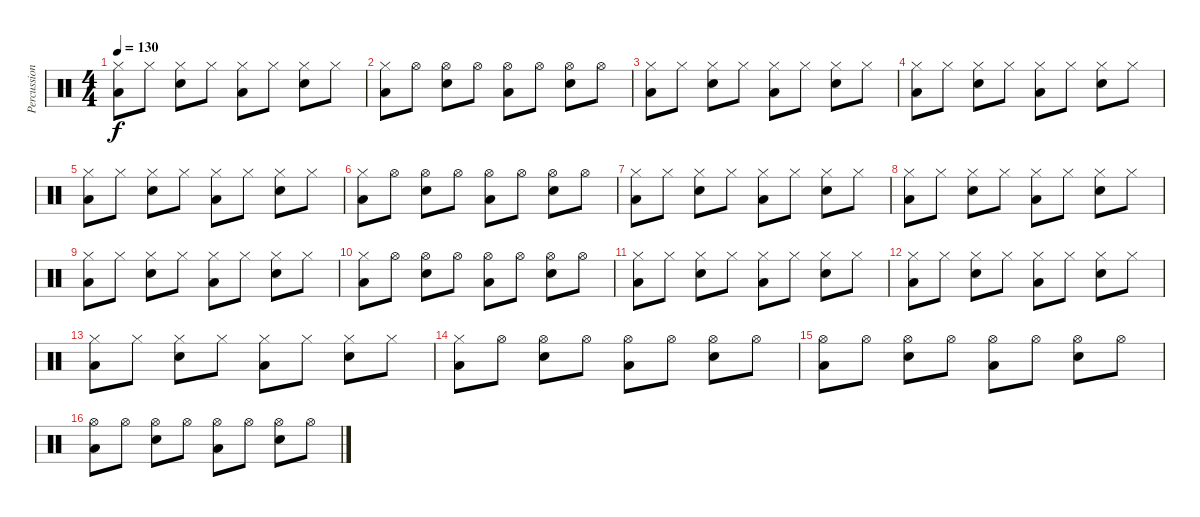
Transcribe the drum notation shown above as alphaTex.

\track ("Percussion" "Percussion") {instrument percussion}
\staff {score}
\articulation defaults
\ts (4 4)
\tempo 130
\clef neutral
\ks c
("Hi-Hat (closed)" "Low Floor Tom (hit)").8{dy f} "Hi-Hat (closed)".8 ("Hi-Hat (closed)" "Snare (hit) 2").8 "Hi-Hat (closed)".8 ("Hi-Hat (closed)" "Low Floor Tom (hit)").8 "Hi-Hat (closed)".8 ("Hi-Hat (closed)" "Snare (hit) 2").8 "Hi-Hat (closed)".8 |
("Hi-Hat (closed)" "Low Floor Tom (hit)").8 "Hi-Hat (open)".8 ("Hi-Hat (open)" "Snare (hit) 2").8 "Hi-Hat (open)".8 ("Hi-Hat (open)" "Low Floor Tom (hit)").8 "Hi-Hat (open)".8 ("Hi-Hat (open)" "Snare (hit) 2").8 "Hi-Hat (open)".8 |
("Hi-Hat (closed)" "Low Floor Tom (hit)").8 "Hi-Hat (closed)".8 ("Hi-Hat (closed)" "Snare (hit) 2").8 "Hi-Hat (closed)".8 ("Hi-Hat (closed)" "Low Floor Tom (hit)").8 "Hi-Hat (closed)".8 ("Hi-Hat (closed)" "Snare (hit) 2").8 "Hi-Hat (closed)".8 |
("Hi-Hat (closed)" "Low Floor Tom (hit)").8 "Hi-Hat (closed)".8 ("Hi-Hat (closed)" "Snare (hit) 2").8 "Hi-Hat (closed)".8 ("Hi-Hat (closed)" "Low Floor Tom (hit)").8 "Hi-Hat (closed)".8 ("Hi-Hat (closed)" "Snare (hit) 2").8 "Hi-Hat (closed)".8 |
("Hi-Hat (closed)" "Low Floor Tom (hit)").8 "Hi-Hat (closed)".8 ("Hi-Hat (closed)" "Snare (hit) 2").8 "Hi-Hat (closed)".8 ("Hi-Hat (closed)" "Low Floor Tom (hit)").8 "Hi-Hat (closed)".8 ("Hi-Hat (closed)" "Snare (hit) 2").8 "Hi-Hat (closed)".8 |
("Hi-Hat (closed)" "Low Floor Tom (hit)").8 "Hi-Hat (open)".8 ("Hi-Hat (open)" "Snare (hit) 2").8 "Hi-Hat (open)".8 ("Hi-Hat (open)" "Low Floor Tom (hit)").8 "Hi-Hat (open)".8 ("Hi-Hat (open)" "Snare (hit) 2").8 "Hi-Hat (open)".8 |
("Hi-Hat (closed)" "Low Floor Tom (hit)").8 "Hi-Hat (closed)".8 ("Hi-Hat (closed)" "Snare (hit) 2").8 "Hi-Hat (closed)".8 ("Hi-Hat (closed)" "Low Floor Tom (hit)").8 "Hi-Hat (closed)".8 ("Hi-Hat (closed)" "Snare (hit) 2").8 "Hi-Hat (closed)".8 |
("Hi-Hat (closed)" "Low Floor Tom (hit)").8 "Hi-Hat (closed)".8 ("Hi-Hat (closed)" "Snare (hit) 2").8 "Hi-Hat (closed)".8 ("Hi-Hat (closed)" "Low Floor Tom (hit)").8 "Hi-Hat (closed)".8 ("Hi-Hat (closed)" "Snare (hit) 2").8 "Hi-Hat (closed)".8 |
("Hi-Hat (closed)" "Low Floor Tom (hit)").8 "Hi-Hat (closed)".8 ("Hi-Hat (closed)" "Snare (hit) 2").8 "Hi-Hat (closed)".8 ("Hi-Hat (closed)" "Low Floor Tom (hit)").8 "Hi-Hat (closed)".8 ("Hi-Hat (closed)" "Snare (hit) 2").8 "Hi-Hat (closed)".8 |
("Hi-Hat (closed)" "Low Floor Tom (hit)").8 "Hi-Hat (open)".8 ("Hi-Hat (open)" "Snare (hit) 2").8 "Hi-Hat (open)".8 ("Hi-Hat (open)" "Low Floor Tom (hit)").8 "Hi-Hat (open)".8 ("Hi-Hat (open)" "Snare (hit) 2").8 "Hi-Hat (open)".8 |
("Hi-Hat (closed)" "Low Floor Tom (hit)").8 "Hi-Hat (closed)".8 ("Hi-Hat (closed)" "Snare (hit) 2").8 "Hi-Hat (closed)".8 ("Hi-Hat (closed)" "Low Floor Tom (hit)").8 "Hi-Hat (closed)".8 ("Hi-Hat (closed)" "Snare (hit) 2").8 "Hi-Hat (closed)".8 |
("Hi-Hat (closed)" "Low Floor Tom (hit)").8 "Hi-Hat (closed)".8 ("Hi-Hat (closed)" "Snare (hit) 2").8 "Hi-Hat (closed)".8 ("Hi-Hat (closed)" "Low Floor Tom (hit)").8 "Hi-Hat (closed)".8 ("Hi-Hat (closed)" "Snare (hit) 2").8 "Hi-Hat (closed)".8 |
("Hi-Hat (closed)" "Low Floor Tom (hit)").8 "Hi-Hat (closed)".8 ("Hi-Hat (closed)" "Snare (hit) 2").8 "Hi-Hat (closed)".8 ("Hi-Hat (closed)" "Low Floor Tom (hit)").8 "Hi-Hat (closed)".8 ("Hi-Hat (closed)" "Snare (hit) 2").8 "Hi-Hat (closed)".8 |
("Hi-Hat (closed)" "Low Floor Tom (hit)").8 "Hi-Hat (open)".8 ("Hi-Hat (open)" "Snare (hit) 2").8 "Hi-Hat (open)".8 ("Hi-Hat (open)" "Low Floor Tom (hit)").8 "Hi-Hat (open)".8 ("Hi-Hat (open)" "Snare (hit) 2").8 "Hi-Hat (open)".8 |
("Hi-Hat (open)" "Low Floor Tom (hit)").8 "Hi-Hat (open)".8 ("Hi-Hat (open)" "Snare (hit) 2").8 "Hi-Hat (open)".8 ("Hi-Hat (open)" "Low Floor Tom (hit)").8 "Hi-Hat (open)".8 ("Hi-Hat (open)" "Snare (hit) 2").8 "Hi-Hat (open)".8 |
("Hi-Hat (open)" "Low Floor Tom (hit)").8 "Hi-Hat (open)".8 ("Hi-Hat (open)" "Snare (hit) 2").8 "Hi-Hat (open)".8 ("Hi-Hat (open)" "Low Floor Tom (hit)").8 "Hi-Hat (open)".8 ("Hi-Hat (open)" "Snare (hit) 2").8 "Hi-Hat (open)".8
